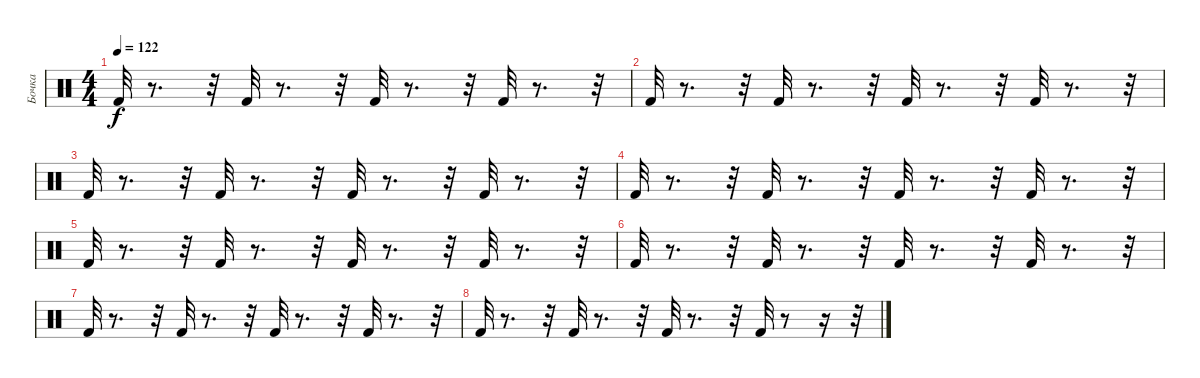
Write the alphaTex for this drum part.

\track ("Бочка" "Бочка") {instrument percussion}
\staff {score}
\articulation defaults
\ts (4 4)
\tempo 122
\clef neutral
\ks c "Kick (hit) 2".32{dy f}
r.8{d} r.32 "Kick (hit) 2".32 r.8{d} r.32 "Kick (hit) 2".32 r.8{d} r.32 "Kick (hit) 2".32 r.8{d} r.32 |
"Kick (hit) 2".32 r.8{d} r.32 "Kick (hit) 2".32 r.8{d} r.32 "Kick (hit) 2".32 r.8{d} r.32 "Kick (hit) 2".32 r.8{d} r.32 |
"Kick (hit) 2".32 r.8{d} r.32 "Kick (hit) 2".32 r.8{d} r.32 "Kick (hit) 2".32 r.8{d} r.32 "Kick (hit) 2".32 r.8{d} r.32 |
"Kick (hit) 2".32 r.8{d} r.32 "Kick (hit) 2".32 r.8{d} r.32 "Kick (hit) 2".32 r.8{d} r.32 "Kick (hit) 2".32 r.8{d} r.32 |
"Kick (hit) 2".32 r.8{d} r.32 "Kick (hit) 2".32 r.8{d} r.32 "Kick (hit) 2".32 r.8{d} r.32 "Kick (hit) 2".32 r.8{d} r.32 |
"Kick (hit) 2".32 r.8{d} r.32 "Kick (hit) 2".32 r.8{d} r.32 "Kick (hit) 2".32 r.8{d} r.32 "Kick (hit) 2".32 r.8{d} r.32 |
"Kick (hit) 2".32 r.8{d} r.32 "Kick (hit) 2".32 r.8{d} r.32 "Kick (hit) 2".32 r.8{d} r.32 "Kick (hit) 2".32 r.8{d} r.32 |
"Kick (hit) 2".32 r.8{d} r.32 "Kick (hit) 2".32 r.8{d} r.32 "Kick (hit) 2".32 r.8{d} r.32 "Kick (hit) 2".32 r.8 r.16 r.32
